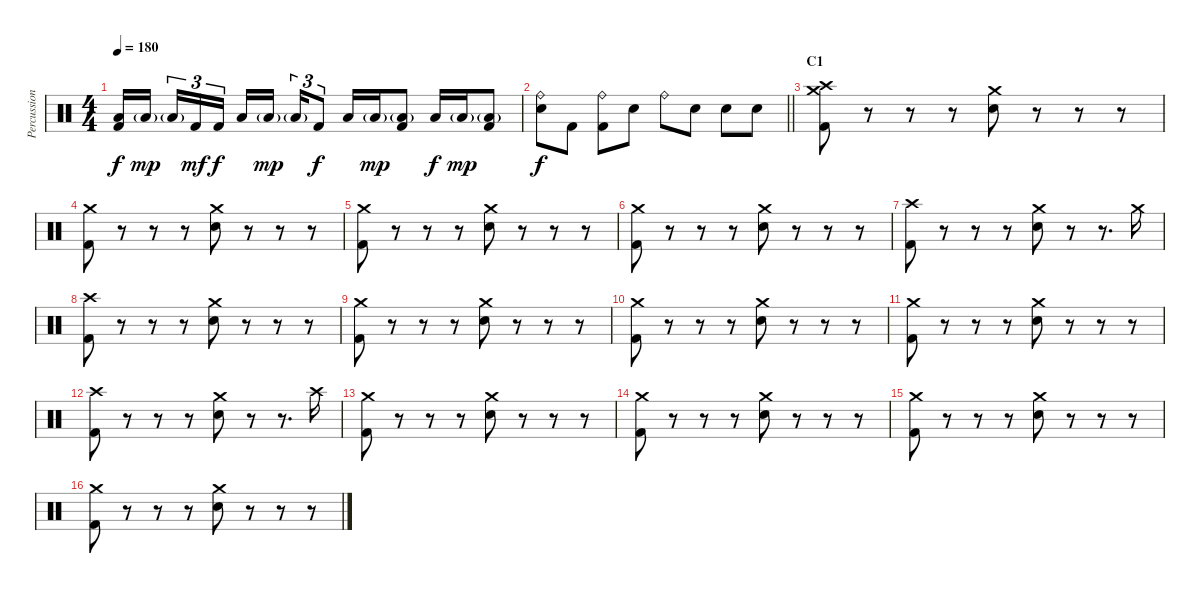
\track ("Percussion" "Percussion") {instrument percussion}
\staff {score}
\articulation defaults
\ts (4 4)
\tempo 180
\clef neutral
\ks c
("Low Tom (hit)" "Kick (hit) 2").16{dy f} "Low Tom (hit)"{g}.16{dy mp beam splitsecondary} "Low Tom (hit)"{g}.16{tu (3 2)} "Kick (hit) 2".16{tu (3 2) dy mf} "Kick (hit) 2".16{tu (3 2) dy f} "Low Tom (hit)".16 "Low Tom (hit)"{g}.16{dy mp beam splitsecondary} "Low Tom (hit)"{g}.16{tu (3 2)} "Kick (hit) 2".8{tu (3 2) dy f} "Low Tom (hit)".16 "Low Tom (hit)"{g}.16{dy mp} ("Low Tom (hit)"{g} "Kick (hit) 2").8 "Low Tom (hit)".16{dy f} "Low Tom (hit)"{g}.16{dy mp} ("Low Tom (hit)"{g} "Kick (hit) 2").8 |
\barLineRight lightlight
("Ride (bell)" "Snare (hit) 2").8{dy f} "Kick (hit) 2".8 ("Ride (bell)" "Kick (hit) 2").8 "Snare (hit) 2".8 "Ride (bell)".8 "Snare (hit) 2".8 "Snare (hit) 2".8 "Snare (hit) 2".8 |
\section ("" "C1")
("Crash high (hit)" "Crash medium (hit)" "Kick (hit) 2").8 r.8 r.8 r.8 ("Crash medium (hit)" "Snare (hit) 2").8 r.8 r.8 r.8 |
("Crash medium (hit)" "Kick (hit) 2").8 r.8 r.8 r.8 ("Crash medium (hit)" "Snare (hit) 2").8 r.8 r.8 r.8 |
("Crash medium (hit)" "Kick (hit) 2").8 r.8 r.8 r.8 ("Crash medium (hit)" "Snare (hit) 2").8 r.8 r.8 r.8 |
("Crash medium (hit)" "Kick (hit) 2").8 r.8 r.8 r.8 ("Crash medium (hit)" "Snare (hit) 2").8 r.8 r.8 r.8 |
("Crash high (hit)" "Kick (hit) 2").8 r.8 r.8 r.8 ("Crash medium (hit)" "Snare (hit) 2").8 r.8 r.8{d} "Crash medium (hit)".16 |
("Crash high (hit)" "Kick (hit) 2").8 r.8 r.8 r.8 ("Crash medium (hit)" "Snare (hit) 2").8 r.8 r.8 r.8 |
("Crash medium (hit)" "Kick (hit) 2").8 r.8 r.8 r.8 ("Crash medium (hit)" "Snare (hit) 2").8 r.8 r.8 r.8 |
("Crash medium (hit)" "Kick (hit) 2").8 r.8 r.8 r.8 ("Crash medium (hit)" "Snare (hit) 2").8 r.8 r.8 r.8 |
("Crash medium (hit)" "Kick (hit) 2").8 r.8 r.8 r.8 ("Crash medium (hit)" "Snare (hit) 2").8 r.8 r.8 r.8 |
("Crash high (hit)" "Kick (hit) 2").8 r.8 r.8 r.8 ("Crash medium (hit)" "Snare (hit) 2").8 r.8 r.8{d} "Crash high (hit)".16 |
("Crash medium (hit)" "Kick (hit) 2").8 r.8 r.8 r.8 ("Crash medium (hit)" "Snare (hit) 2").8 r.8 r.8 r.8 |
("Crash medium (hit)" "Kick (hit) 2").8 r.8 r.8 r.8 ("Crash medium (hit)" "Snare (hit) 2").8 r.8 r.8 r.8 |
("Crash medium (hit)" "Kick (hit) 2").8 r.8 r.8 r.8 ("Crash medium (hit)" "Snare (hit) 2").8 r.8 r.8 r.8 |
("Crash medium (hit)" "Kick (hit) 2").8 r.8 r.8 r.8 ("Crash medium (hit)" "Snare (hit) 2").8 r.8 r.8 r.8
